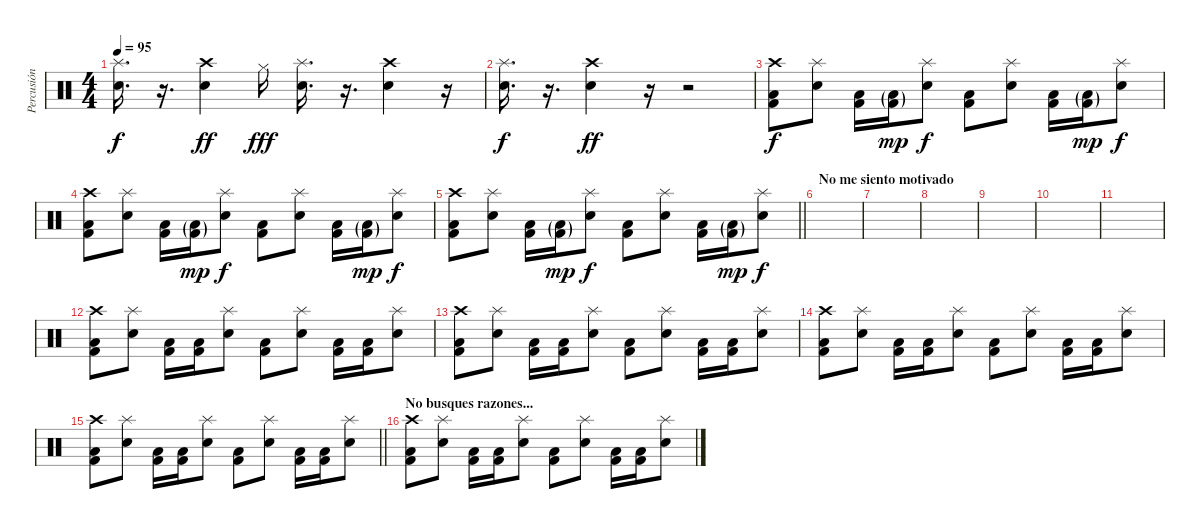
\track ("Percusión" "Percusión") {instrument percussion}
\staff {score}
\articulation defaults
\ts (4 4)
\tempo 95
\clef neutral
\ks c
("Splash (hit)" "Electric Snare (hit)").16{d dy f} r.16{d} ("Crash high (hit)" "Electric Snare (hit)").4{dy ff} "Hi-Hat (closed)".16{dy fff} ("Splash (hit)" "Electric Snare (hit)").16{d} r.16{d} ("Crash high (hit)" "Electric Snare (hit)").4 r.16 |
("Splash (hit)" "Electric Snare (hit)").16{d dy f} r.16{d} ("Crash high (hit)" "Electric Snare (hit)").4{dy ff} r.16 r.2 |
("Crash high (hit)" "Low Floor Tom (hit)" "Kick (hit) 2").8{dy f} ("Splash (hit)" "Electric Snare (hit)").8 ("Low Floor Tom (hit)" "Kick (hit) 2").16 ("Low Floor Tom (hit)"{g} "Kick (hit) 2"{g}).16{dy mp} ("Splash (hit)" "Electric Snare (hit)").8{dy f} ("Low Floor Tom (hit)" "Kick (hit) 2").8 ("Splash (hit)" "Electric Snare (hit)").8 ("Low Floor Tom (hit)" "Kick (hit) 2").16 ("Low Floor Tom (hit)"{g} "Kick (hit) 2"{g}).16{dy mp} ("Splash (hit)" "Electric Snare (hit)").8{dy f} |
("Crash high (hit)" "Low Floor Tom (hit)" "Kick (hit) 2").8 ("Splash (hit)" "Electric Snare (hit)").8 ("Low Floor Tom (hit)" "Kick (hit) 2").16 ("Low Floor Tom (hit)"{g} "Kick (hit) 2"{g}).16{dy mp} ("Splash (hit)" "Electric Snare (hit)").8{dy f} ("Low Floor Tom (hit)" "Kick (hit) 2").8 ("Splash (hit)" "Electric Snare (hit)").8 ("Low Floor Tom (hit)" "Kick (hit) 2").16 ("Low Floor Tom (hit)"{g} "Kick (hit) 2"{g}).16{dy mp} ("Splash (hit)" "Electric Snare (hit)").8{dy f} |
\barLineRight lightlight
("Crash high (hit)" "Low Floor Tom (hit)" "Kick (hit) 2").8 ("Splash (hit)" "Electric Snare (hit)").8 ("Low Floor Tom (hit)" "Kick (hit) 2").16 ("Low Floor Tom (hit)"{g} "Kick (hit) 2"{g}).16{dy mp} ("Splash (hit)" "Electric Snare (hit)").8{dy f} ("Low Floor Tom (hit)" "Kick (hit) 2").8 ("Splash (hit)" "Electric Snare (hit)").8 ("Low Floor Tom (hit)" "Kick (hit) 2").16 ("Low Floor Tom (hit)"{g} "Kick (hit) 2"{g}).16{dy mp} ("Splash (hit)" "Electric Snare (hit)").8{dy f} |
\section ("" "No me siento motivado")
|
|
|
|
|
|
("Crash high (hit)" "Low Floor Tom (hit)" "Kick (hit) 2").8 ("Splash (hit)" "Electric Snare (hit)").8 ("Low Floor Tom (hit)" "Kick (hit) 2").16 ("Low Floor Tom (hit)" "Kick (hit) 2").16 ("Splash (hit)" "Electric Snare (hit)").8 ("Low Floor Tom (hit)" "Kick (hit) 2").8 ("Splash (hit)" "Electric Snare (hit)").8 ("Low Floor Tom (hit)" "Kick (hit) 2").16 ("Low Floor Tom (hit)" "Kick (hit) 2").16 ("Splash (hit)" "Electric Snare (hit)").8 |
("Crash high (hit)" "Low Floor Tom (hit)" "Kick (hit) 2").8 ("Splash (hit)" "Electric Snare (hit)").8 ("Low Floor Tom (hit)" "Kick (hit) 2").16 ("Low Floor Tom (hit)" "Kick (hit) 2").16 ("Splash (hit)" "Electric Snare (hit)").8 ("Low Floor Tom (hit)" "Kick (hit) 2").8 ("Splash (hit)" "Electric Snare (hit)").8 ("Low Floor Tom (hit)" "Kick (hit) 2").16 ("Low Floor Tom (hit)" "Kick (hit) 2").16 ("Splash (hit)" "Electric Snare (hit)").8 |
("Crash high (hit)" "Low Floor Tom (hit)" "Kick (hit) 2").8 ("Splash (hit)" "Electric Snare (hit)").8 ("Low Floor Tom (hit)" "Kick (hit) 2").16 ("Low Floor Tom (hit)" "Kick (hit) 2").16 ("Splash (hit)" "Electric Snare (hit)").8 ("Low Floor Tom (hit)" "Kick (hit) 2").8 ("Splash (hit)" "Electric Snare (hit)").8 ("Low Floor Tom (hit)" "Kick (hit) 2").16 ("Low Floor Tom (hit)" "Kick (hit) 2").16 ("Splash (hit)" "Electric Snare (hit)").8 |
\barLineRight lightlight
("Crash high (hit)" "Low Floor Tom (hit)" "Kick (hit) 2").8 ("Splash (hit)" "Electric Snare (hit)").8 ("Low Floor Tom (hit)" "Kick (hit) 2").16 ("Low Floor Tom (hit)" "Kick (hit) 2").16 ("Splash (hit)" "Electric Snare (hit)").8 ("Low Floor Tom (hit)" "Kick (hit) 2").8 ("Splash (hit)" "Electric Snare (hit)").8 ("Low Floor Tom (hit)" "Kick (hit) 2").16 ("Low Floor Tom (hit)" "Kick (hit) 2").16 ("Splash (hit)" "Electric Snare (hit)").8 |
\section ("" "No busques razones...")
("Crash high (hit)" "Low Floor Tom (hit)" "Kick (hit) 2").8 ("Splash (hit)" "Electric Snare (hit)").8 ("Low Floor Tom (hit)" "Kick (hit) 2").16 ("Low Floor Tom (hit)" "Kick (hit) 2").16 ("Splash (hit)" "Electric Snare (hit)").8 ("Low Floor Tom (hit)" "Kick (hit) 2").8 ("Splash (hit)" "Electric Snare (hit)").8 ("Low Floor Tom (hit)" "Kick (hit) 2").16 ("Low Floor Tom (hit)" "Kick (hit) 2").16 ("Splash (hit)" "Electric Snare (hit)").8
